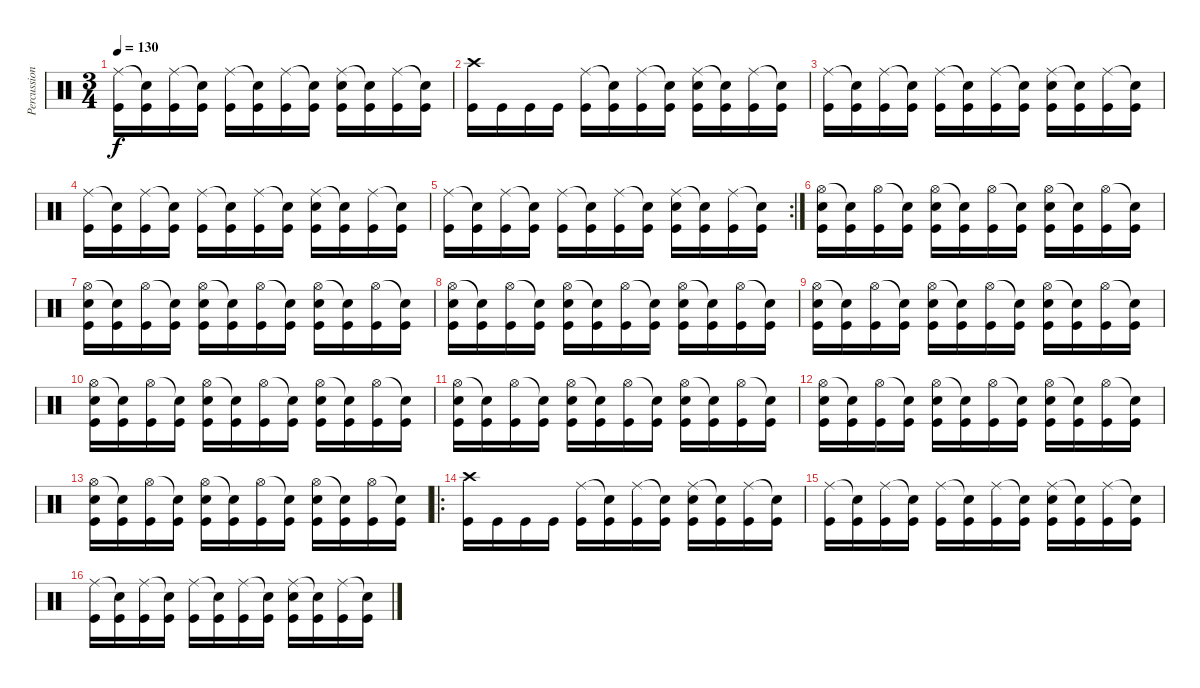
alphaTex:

\track ("Percussion" "Percussion") {instrument percussion}
\staff {score}
\articulation defaults
\ts (3 4)
\tempo 130
\clef neutral
\ks c
("Ride (middle)" "Kick (hit)").16{dy f} ("Snare (hit)"{t} "Kick (hit)").16 ("Ride (middle)" "Kick (hit)").16 ("Snare (hit)"{t} "Kick (hit)").16 ("Ride (middle)" "Kick (hit)").16 ("Snare (hit)"{t} "Kick (hit)").16 ("Ride (middle)" "Kick (hit)").16 ("Snare (hit)"{t} "Kick (hit)").16 ("Ride (middle)" "Electric Snare (hit)" "Kick (hit)").16 ("Snare (hit)"{t} "Kick (hit)").16 ("Ride (middle)" "Kick (hit)").16 ("Snare (hit)"{t} "Kick (hit)").16 |
("Crash high (hit)" "Kick (hit)").16 "Kick (hit)".16 "Kick (hit)".16 "Kick (hit)".16 ("Ride (middle)" "Kick (hit)").16 ("Snare (hit)"{t} "Kick (hit)").16 ("Ride (middle)" "Kick (hit)").16 ("Snare (hit)"{t} "Kick (hit)").16 ("Ride (middle)" "Electric Snare (hit)" "Kick (hit)").16 ("Snare (hit)"{t} "Kick (hit)").16 ("Ride (middle)" "Kick (hit)").16 ("Snare (hit)"{t} "Kick (hit)").16 |
("Ride (middle)" "Kick (hit)").16 ("Snare (hit)"{t} "Kick (hit)").16 ("Ride (middle)" "Kick (hit)").16 ("Snare (hit)"{t} "Kick (hit)").16 ("Ride (middle)" "Kick (hit)").16 ("Snare (hit)"{t} "Kick (hit)").16 ("Ride (middle)" "Kick (hit)").16 ("Snare (hit)"{t} "Kick (hit)").16 ("Ride (middle)" "Electric Snare (hit)" "Kick (hit)").16 ("Snare (hit)"{t} "Kick (hit)").16 ("Ride (middle)" "Kick (hit)").16 ("Snare (hit)"{t} "Kick (hit)").16 |
("Ride (middle)" "Kick (hit)").16 ("Snare (hit)"{t} "Kick (hit)").16 ("Ride (middle)" "Kick (hit)").16 ("Snare (hit)"{t} "Kick (hit)").16 ("Ride (middle)" "Kick (hit)").16 ("Snare (hit)"{t} "Kick (hit)").16 ("Ride (middle)" "Kick (hit)").16 ("Snare (hit)"{t} "Kick (hit)").16 ("Ride (middle)" "Electric Snare (hit)" "Kick (hit)").16 ("Snare (hit)"{t} "Kick (hit)").16 ("Ride (middle)" "Kick (hit)").16 ("Snare (hit)"{t} "Kick (hit)").16 |
\rc 2
("Ride (middle)" "Kick (hit)").16 ("Snare (hit)"{t} "Kick (hit)").16 ("Ride (middle)" "Kick (hit)").16 ("Snare (hit)"{t} "Kick (hit)").16 ("Ride (middle)" "Kick (hit)").16 ("Snare (hit)"{t} "Kick (hit)").16 ("Ride (middle)" "Kick (hit)").16 ("Snare (hit)"{t} "Kick (hit)").16 ("Ride (middle)" "Electric Snare (hit)" "Kick (hit)").16 ("Snare (hit)"{t} "Kick (hit)").16 ("Ride (middle)" "Kick (hit)").16 ("Snare (hit)"{t} "Kick (hit)").16 |
("Hi-Hat (open)" "Electric Snare (hit)" "Kick (hit)").16 ("Snare (hit)"{t} "Kick (hit)").16 ("Hi-Hat (open)" "Kick (hit)").16 ("Snare (hit)"{t} "Kick (hit)").16 ("Hi-Hat (open)" "Electric Snare (hit)" "Kick (hit)").16 ("Snare (hit)"{t} "Kick (hit)").16 ("Hi-Hat (open)" "Kick (hit)").16 ("Snare (hit)"{t} "Kick (hit)").16 ("Hi-Hat (open)" "Electric Snare (hit)" "Kick (hit)").16 ("Snare (hit)"{t} "Kick (hit)").16 ("Hi-Hat (open)" "Kick (hit)").16 ("Snare (hit)"{t} "Kick (hit)").16 |
("Hi-Hat (open)" "Electric Snare (hit)" "Kick (hit)").16 ("Snare (hit)"{t} "Kick (hit)").16 ("Hi-Hat (open)" "Kick (hit)").16 ("Snare (hit)"{t} "Kick (hit)").16 ("Hi-Hat (open)" "Electric Snare (hit)" "Kick (hit)").16 ("Snare (hit)"{t} "Kick (hit)").16 ("Hi-Hat (open)" "Kick (hit)").16 ("Snare (hit)"{t} "Kick (hit)").16 ("Hi-Hat (open)" "Electric Snare (hit)" "Kick (hit)").16 ("Snare (hit)"{t} "Kick (hit)").16 ("Hi-Hat (open)" "Kick (hit)").16 ("Snare (hit)"{t} "Kick (hit)").16 |
("Hi-Hat (open)" "Electric Snare (hit)" "Kick (hit)").16 ("Snare (hit)"{t} "Kick (hit)").16 ("Hi-Hat (open)" "Kick (hit)").16 ("Snare (hit)"{t} "Kick (hit)").16 ("Hi-Hat (open)" "Electric Snare (hit)" "Kick (hit)").16 ("Snare (hit)"{t} "Kick (hit)").16 ("Hi-Hat (open)" "Kick (hit)").16 ("Snare (hit)"{t} "Kick (hit)").16 ("Hi-Hat (open)" "Electric Snare (hit)" "Kick (hit)").16 ("Snare (hit)"{t} "Kick (hit)").16 ("Hi-Hat (open)" "Kick (hit)").16 ("Snare (hit)"{t} "Kick (hit)").16 |
("Hi-Hat (open)" "Electric Snare (hit)" "Kick (hit)").16 ("Snare (hit)"{t} "Kick (hit)").16 ("Hi-Hat (open)" "Kick (hit)").16 ("Snare (hit)"{t} "Kick (hit)").16 ("Hi-Hat (open)" "Electric Snare (hit)" "Kick (hit)").16 ("Snare (hit)"{t} "Kick (hit)").16 ("Hi-Hat (open)" "Kick (hit)").16 ("Snare (hit)"{t} "Kick (hit)").16 ("Hi-Hat (open)" "Electric Snare (hit)" "Kick (hit)").16 ("Snare (hit)"{t} "Kick (hit)").16 ("Hi-Hat (open)" "Kick (hit)").16 ("Snare (hit)"{t} "Kick (hit)").16 |
("Hi-Hat (open)" "Electric Snare (hit)" "Kick (hit)").16 ("Snare (hit)"{t} "Kick (hit)").16 ("Hi-Hat (open)" "Kick (hit)").16 ("Snare (hit)"{t} "Kick (hit)").16 ("Hi-Hat (open)" "Electric Snare (hit)" "Kick (hit)").16 ("Snare (hit)"{t} "Kick (hit)").16 ("Hi-Hat (open)" "Kick (hit)").16 ("Snare (hit)"{t} "Kick (hit)").16 ("Hi-Hat (open)" "Electric Snare (hit)" "Kick (hit)").16 ("Snare (hit)"{t} "Kick (hit)").16 ("Hi-Hat (open)" "Kick (hit)").16 ("Snare (hit)"{t} "Kick (hit)").16 |
("Hi-Hat (open)" "Electric Snare (hit)" "Kick (hit)").16 ("Snare (hit)"{t} "Kick (hit)").16 ("Hi-Hat (open)" "Kick (hit)").16 ("Snare (hit)"{t} "Kick (hit)").16 ("Hi-Hat (open)" "Electric Snare (hit)" "Kick (hit)").16 ("Snare (hit)"{t} "Kick (hit)").16 ("Hi-Hat (open)" "Kick (hit)").16 ("Snare (hit)"{t} "Kick (hit)").16 ("Hi-Hat (open)" "Electric Snare (hit)" "Kick (hit)").16 ("Snare (hit)"{t} "Kick (hit)").16 ("Hi-Hat (open)" "Kick (hit)").16 ("Snare (hit)"{t} "Kick (hit)").16 |
("Hi-Hat (open)" "Electric Snare (hit)" "Kick (hit)").16 ("Snare (hit)"{t} "Kick (hit)").16 ("Hi-Hat (open)" "Kick (hit)").16 ("Snare (hit)"{t} "Kick (hit)").16 ("Hi-Hat (open)" "Electric Snare (hit)" "Kick (hit)").16 ("Snare (hit)"{t} "Kick (hit)").16 ("Hi-Hat (open)" "Kick (hit)").16 ("Snare (hit)"{t} "Kick (hit)").16 ("Hi-Hat (open)" "Electric Snare (hit)" "Kick (hit)").16 ("Snare (hit)"{t} "Kick (hit)").16 ("Hi-Hat (open)" "Kick (hit)").16 ("Snare (hit)"{t} "Kick (hit)").16 |
("Hi-Hat (open)" "Electric Snare (hit)" "Kick (hit)").16 ("Snare (hit)"{t} "Kick (hit)").16 ("Hi-Hat (open)" "Kick (hit)").16 ("Snare (hit)"{t} "Kick (hit)").16 ("Hi-Hat (open)" "Electric Snare (hit)" "Kick (hit)").16 ("Snare (hit)"{t} "Kick (hit)").16 ("Hi-Hat (open)" "Kick (hit)").16 ("Snare (hit)"{t} "Kick (hit)").16 ("Hi-Hat (open)" "Electric Snare (hit)" "Kick (hit)").16 ("Snare (hit)"{t} "Kick (hit)").16 ("Hi-Hat (open)" "Kick (hit)").16 ("Snare (hit)"{t} "Kick (hit)").16 |
\ro
("Crash high (hit)" "Kick (hit)").16 "Kick (hit)".16 "Kick (hit)".16 "Kick (hit)".16 ("Ride (middle)" "Kick (hit)").16 ("Snare (hit)"{t} "Kick (hit)").16 ("Ride (middle)" "Kick (hit)").16 ("Snare (hit)"{t} "Kick (hit)").16 ("Ride (middle)" "Electric Snare (hit)" "Kick (hit)").16 ("Snare (hit)"{t} "Kick (hit)").16 ("Ride (middle)" "Kick (hit)").16 ("Snare (hit)"{t} "Kick (hit)").16 |
("Ride (middle)" "Kick (hit)").16 ("Snare (hit)"{t} "Kick (hit)").16 ("Ride (middle)" "Kick (hit)").16 ("Snare (hit)"{t} "Kick (hit)").16 ("Ride (middle)" "Kick (hit)").16 ("Snare (hit)"{t} "Kick (hit)").16 ("Ride (middle)" "Kick (hit)").16 ("Snare (hit)"{t} "Kick (hit)").16 ("Ride (middle)" "Electric Snare (hit)" "Kick (hit)").16 ("Snare (hit)"{t} "Kick (hit)").16 ("Ride (middle)" "Kick (hit)").16 ("Snare (hit)"{t} "Kick (hit)").16 |
("Ride (middle)" "Kick (hit)").16 ("Snare (hit)"{t} "Kick (hit)").16 ("Ride (middle)" "Kick (hit)").16 ("Snare (hit)"{t} "Kick (hit)").16 ("Ride (middle)" "Kick (hit)").16 ("Snare (hit)"{t} "Kick (hit)").16 ("Ride (middle)" "Kick (hit)").16 ("Snare (hit)"{t} "Kick (hit)").16 ("Ride (middle)" "Electric Snare (hit)" "Kick (hit)").16 ("Snare (hit)"{t} "Kick (hit)").16 ("Ride (middle)" "Kick (hit)").16 ("Snare (hit)"{t} "Kick (hit)").16
